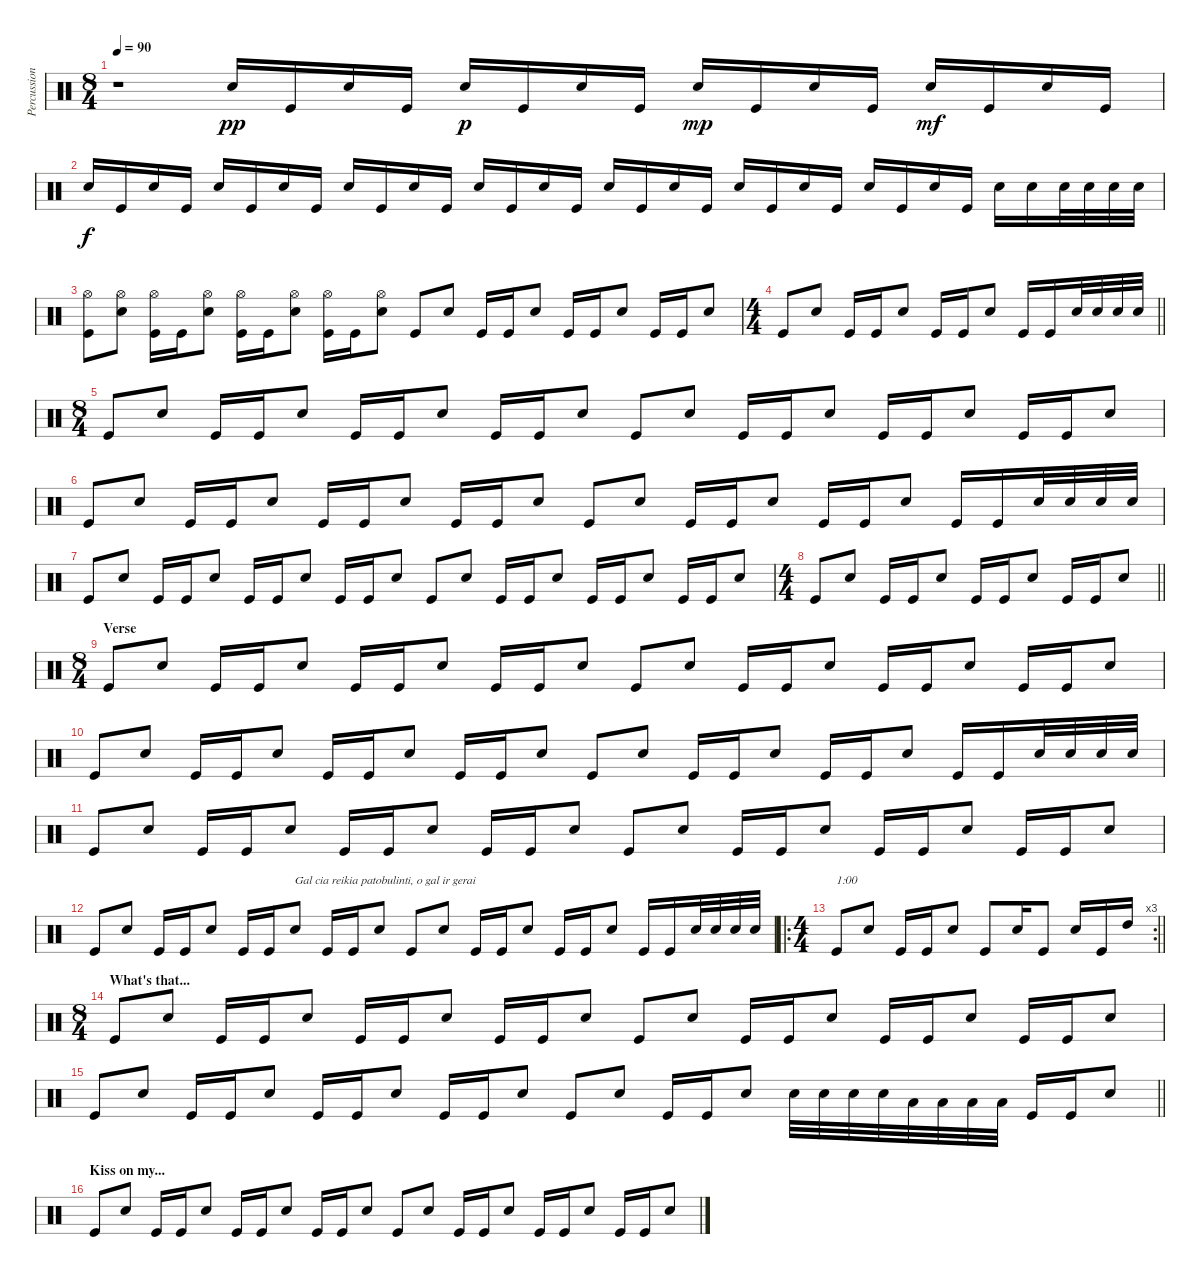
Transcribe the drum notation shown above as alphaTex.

\track ("Percussion" "Percussion") {instrument percussion}
\staff {score}
\articulation defaults
\ts (8 4)
\tempo 90
\clef neutral
\ks c
r.1{dy pp} "Snare (hit) 2".16 "Kick (hit)".16 "Snare (hit) 2".16 "Kick (hit)".16 "Snare (hit) 2".16{dy p} "Kick (hit)".16 "Snare (hit) 2".16 "Kick (hit)".16 "Snare (hit) 2".16{dy mp} "Kick (hit)".16 "Snare (hit) 2".16 "Kick (hit)".16 "Snare (hit) 2".16{dy mf} "Kick (hit)".16 "Snare (hit) 2".16 "Kick (hit)".16 |
"Snare (hit) 2".16{dy f} "Kick (hit)".16 "Snare (hit) 2".16 "Kick (hit)".16 "Snare (hit) 2".16 "Kick (hit)".16 "Snare (hit) 2".16 "Kick (hit)".16 "Snare (hit) 2".16 "Kick (hit)".16 "Snare (hit) 2".16 "Kick (hit)".16 "Snare (hit) 2".16 "Kick (hit)".16 "Snare (hit) 2".16 "Kick (hit)".16 "Snare (hit) 2".16 "Kick (hit)".16 "Snare (hit) 2".16 "Kick (hit)".16 "Snare (hit) 2".16 "Kick (hit)".16 "Snare (hit) 2".16 "Kick (hit)".16 "Snare (hit) 2".16 "Kick (hit)".16 "Snare (hit) 2".16 "Kick (hit)".16 "Snare (hit) 2".16 "Snare (hit) 2".16 "Snare (hit) 2".32 "Snare (hit) 2".32 "Snare (hit) 2".32 "Snare (hit) 2".32 |
("Hi-Hat (open)" "Kick (hit)").8 ("Hi-Hat (open)" "Snare (hit) 2").8 ("Hi-Hat (open)" "Kick (hit)").16 "Kick (hit)".16 ("Hi-Hat (open)" "Snare (hit) 2").8 ("Hi-Hat (open)" "Kick (hit)").16 "Kick (hit)".16 ("Hi-Hat (open)" "Snare (hit) 2").8 ("Hi-Hat (open)" "Kick (hit)").16 "Kick (hit)".16 ("Hi-Hat (open)" "Snare (hit) 2").8 "Kick (hit)".8 "Snare (hit) 2".8 "Kick (hit)".16 "Kick (hit)".16 "Snare (hit) 2".8 "Kick (hit)".16 "Kick (hit)".16 "Snare (hit) 2".8 "Kick (hit)".16 "Kick (hit)".16 "Snare (hit) 2".8 |
\ts (4 4)
\barLineRight lightlight "Kick (hit)".8 "Snare (hit) 2".8 "Kick (hit)".16 "Kick (hit)".16 "Snare (hit) 2".8 "Kick (hit)".16 "Kick (hit)".16 "Snare (hit) 2".8 "Kick (hit)".16 "Kick (hit)".16 "Snare (hit) 2".32 "Snare (hit) 2".32 "Snare (hit) 2".32 "Snare (hit) 2".32
|
\ts (8 4)
\section ("" "")
"Kick (hit)".8 "Snare (hit) 2".8 "Kick (hit)".16 "Kick (hit)".16 "Snare (hit) 2".8 "Kick (hit)".16 "Kick (hit)".16 "Snare (hit) 2".8 "Kick (hit)".16 "Kick (hit)".16 "Snare (hit) 2".8 "Kick (hit)".8 "Snare (hit) 2".8 "Kick (hit)".16 "Kick (hit)".16 "Snare (hit) 2".8 "Kick (hit)".16 "Kick (hit)".16 "Snare (hit) 2".8 "Kick (hit)".16 "Kick (hit)".16 "Snare (hit) 2".8 |
"Kick (hit)".8 "Snare (hit) 2".8 "Kick (hit)".16 "Kick (hit)".16 "Snare (hit) 2".8 "Kick (hit)".16 "Kick (hit)".16 "Snare (hit) 2".8 "Kick (hit)".16 "Kick (hit)".16 "Snare (hit) 2".8 "Kick (hit)".8 "Snare (hit) 2".8 "Kick (hit)".16 "Kick (hit)".16 "Snare (hit) 2".8 "Kick (hit)".16 "Kick (hit)".16 "Snare (hit) 2".8 "Kick (hit)".16 "Kick (hit)".16 "Snare (hit) 2".32 "Snare (hit) 2".32 "Snare (hit) 2".32 "Snare (hit) 2".32 |
"Kick (hit)".8 "Snare (hit) 2".8 "Kick (hit)".16 "Kick (hit)".16 "Snare (hit) 2".8 "Kick (hit)".16 "Kick (hit)".16 "Snare (hit) 2".8 "Kick (hit)".16 "Kick (hit)".16 "Snare (hit) 2".8 "Kick (hit)".8 "Snare (hit) 2".8 "Kick (hit)".16 "Kick (hit)".16 "Snare (hit) 2".8 "Kick (hit)".16 "Kick (hit)".16 "Snare (hit) 2".8 "Kick (hit)".16 "Kick (hit)".16 "Snare (hit) 2".8 |
\ts (4 4)
\barLineRight lightlight "Kick (hit)".8 "Snare (hit) 2".8 "Kick (hit)".16 "Kick (hit)".16 "Snare (hit) 2".8 "Kick (hit)".16 "Kick (hit)".16 "Snare (hit) 2".8 "Kick (hit)".16 "Kick (hit)".16 "Snare (hit) 2".8
|
\ts (8 4)
\section ("" "Verse")
"Kick (hit)".8 "Snare (hit) 2".8 "Kick (hit)".16 "Kick (hit)".16 "Snare (hit) 2".8 "Kick (hit)".16 "Kick (hit)".16 "Snare (hit) 2".8 "Kick (hit)".16 "Kick (hit)".16 "Snare (hit) 2".8 "Kick (hit)".8 "Snare (hit) 2".8 "Kick (hit)".16 "Kick (hit)".16 "Snare (hit) 2".8 "Kick (hit)".16 "Kick (hit)".16 "Snare (hit) 2".8 "Kick (hit)".16 "Kick (hit)".16 "Snare (hit) 2".8 |
"Kick (hit)".8 "Snare (hit) 2".8 "Kick (hit)".16 "Kick (hit)".16 "Snare (hit) 2".8 "Kick (hit)".16 "Kick (hit)".16 "Snare (hit) 2".8 "Kick (hit)".16 "Kick (hit)".16 "Snare (hit) 2".8 "Kick (hit)".8 "Snare (hit) 2".8 "Kick (hit)".16 "Kick (hit)".16 "Snare (hit) 2".8 "Kick (hit)".16 "Kick (hit)".16 "Snare (hit) 2".8 "Kick (hit)".16 "Kick (hit)".16 "Snare (hit) 2".32 "Snare (hit) 2".32 "Snare (hit) 2".32 "Snare (hit) 2".32 |
"Kick (hit)".8 "Snare (hit) 2".8 "Kick (hit)".16 "Kick (hit)".16 "Snare (hit) 2".8 "Kick (hit)".16 "Kick (hit)".16 "Snare (hit) 2".8 "Kick (hit)".16 "Kick (hit)".16 "Snare (hit) 2".8 "Kick (hit)".8 "Snare (hit) 2".8 "Kick (hit)".16 "Kick (hit)".16 "Snare (hit) 2".8 "Kick (hit)".16 "Kick (hit)".16 "Snare (hit) 2".8 "Kick (hit)".16 "Kick (hit)".16 "Snare (hit) 2".8 |
"Kick (hit)".8 "Snare (hit) 2".8 "Kick (hit)".16 "Kick (hit)".16 "Snare (hit) 2".8 "Kick (hit)".16 "Kick (hit)".16 "Snare (hit) 2".8{txt "Gal cia reikia patobulinti, o gal ir gerai"} "Kick (hit)".16 "Kick (hit)".16 "Snare (hit) 2".8 "Kick (hit)".8 "Snare (hit) 2".8 "Kick (hit)".16 "Kick (hit)".16 "Snare (hit) 2".8 "Kick (hit)".16 "Kick (hit)".16 "Snare (hit) 2".8 "Kick (hit)".16 "Kick (hit)".16 "Snare (hit) 2".32 "Snare (hit) 2".32 "Snare (hit) 2".32 "Snare (hit) 2".32 |
\ro
\rc 3
\ts (4 4)
\barLineRight lightlight "Kick (hit)".8{txt "1:00"} "Snare (hit) 2".8 "Kick (hit)".16 "Kick (hit)".16 "Snare (hit) 2".8 "Kick (hit)".8 "Snare (hit) 2".16 "Kick (hit)".8 "Snare (hit) 2".16 "Kick (hit)".16 "High Tom (hit)".16
|
\ts (8 4)
\section ("" "What's that...")
"Kick (hit)".8 "Snare (hit) 2".8 "Kick (hit)".16 "Kick (hit)".16 "Snare (hit) 2".8 "Kick (hit)".16 "Kick (hit)".16 "Snare (hit) 2".8 "Kick (hit)".16 "Kick (hit)".16 "Snare (hit) 2".8 "Kick (hit)".8 "Snare (hit) 2".8 "Kick (hit)".16 "Kick (hit)".16 "Snare (hit) 2".8 "Kick (hit)".16 "Kick (hit)".16 "Snare (hit) 2".8 "Kick (hit)".16 "Kick (hit)".16 "Snare (hit) 2".8 |
\barLineRight lightlight "Kick (hit)".8 "Snare (hit) 2".8 "Kick (hit)".16 "Kick (hit)".16 "Snare (hit) 2".8 "Kick (hit)".16 "Kick (hit)".16 "Snare (hit) 2".8 "Kick (hit)".16 "Kick (hit)".16 "Snare (hit) 2".8 "Kick (hit)".8 "Snare (hit) 2".8 "Kick (hit)".16 "Kick (hit)".16 "Snare (hit) 2".8 "Snare (hit) 2".32 "Snare (hit) 2".32 "Snare (hit) 2".32 "Snare (hit) 2".32 "Low Floor Tom (hit)".32 "Low Floor Tom (hit)".32 "Low Floor Tom (hit)".32 "Low Floor Tom (hit)".32 "Kick (hit)".16 "Kick (hit)".16 "Snare (hit) 2".8
|
\section ("" "Kiss on my...")
"Kick (hit)".8 "Snare (hit) 2".8 "Kick (hit)".16 "Kick (hit)".16 "Snare (hit) 2".8 "Kick (hit)".16 "Kick (hit)".16 "Snare (hit) 2".8 "Kick (hit)".16 "Kick (hit)".16 "Snare (hit) 2".8 "Kick (hit)".8 "Snare (hit) 2".8 "Kick (hit)".16 "Kick (hit)".16 "Snare (hit) 2".8 "Kick (hit)".16 "Kick (hit)".16 "Snare (hit) 2".8 "Kick (hit)".16 "Kick (hit)".16 "Snare (hit) 2".8
